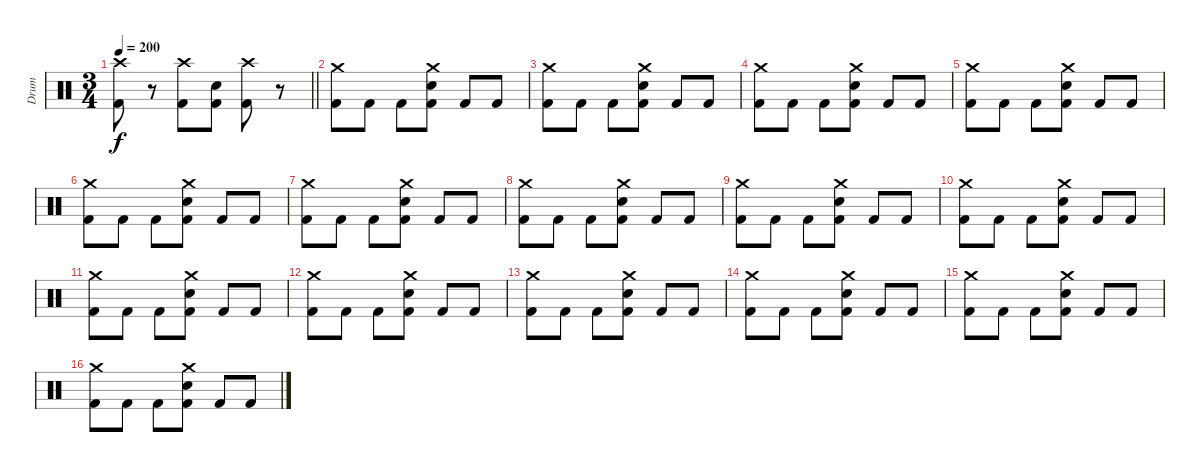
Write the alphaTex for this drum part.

\track ("Drum" "Drum") {instrument percussion}
\staff {score}
\articulation defaults
\ts (3 4)
\tempo 200
\clef neutral
\barLineRight lightlight
\ks c
("Crash high (hit)" "Kick (hit) 2").8{dy f} r.8 ("Crash high (hit)" "Kick (hit) 2").8 ("Electric Snare (hit)" "Kick (hit) 2").8 ("Crash high (hit)" "Kick (hit) 2").8 r.8 |
("Crash medium (hit)" "Kick (hit) 2").8 "Kick (hit) 2".8 "Kick (hit) 2".8 ("Crash medium (hit)" "Electric Snare (hit)" "Kick (hit) 2").8 "Kick (hit) 2".8 "Kick (hit) 2".8 |
("Crash medium (hit)" "Kick (hit) 2").8 "Kick (hit) 2".8 "Kick (hit) 2".8 ("Crash medium (hit)" "Electric Snare (hit)" "Kick (hit) 2").8 "Kick (hit) 2".8 "Kick (hit) 2".8 |
("Crash medium (hit)" "Kick (hit) 2").8 "Kick (hit) 2".8 "Kick (hit) 2".8 ("Crash medium (hit)" "Electric Snare (hit)" "Kick (hit) 2").8 "Kick (hit) 2".8 "Kick (hit) 2".8 |
("Crash medium (hit)" "Kick (hit) 2").8 "Kick (hit) 2".8 "Kick (hit) 2".8 ("Crash medium (hit)" "Electric Snare (hit)" "Kick (hit) 2").8 "Kick (hit) 2".8 "Kick (hit) 2".8 |
("Crash medium (hit)" "Kick (hit) 2").8 "Kick (hit) 2".8 "Kick (hit) 2".8 ("Crash medium (hit)" "Electric Snare (hit)" "Kick (hit) 2").8 "Kick (hit) 2".8 "Kick (hit) 2".8 |
("Crash medium (hit)" "Kick (hit) 2").8 "Kick (hit) 2".8 "Kick (hit) 2".8 ("Crash medium (hit)" "Electric Snare (hit)" "Kick (hit) 2").8 "Kick (hit) 2".8 "Kick (hit) 2".8 |
("Crash medium (hit)" "Kick (hit) 2").8 "Kick (hit) 2".8 "Kick (hit) 2".8 ("Crash medium (hit)" "Electric Snare (hit)" "Kick (hit) 2").8 "Kick (hit) 2".8 "Kick (hit) 2".8 |
("Crash medium (hit)" "Kick (hit) 2").8 "Kick (hit) 2".8 "Kick (hit) 2".8 ("Crash medium (hit)" "Electric Snare (hit)" "Kick (hit) 2").8 "Kick (hit) 2".8 "Kick (hit) 2".8 |
("Crash medium (hit)" "Kick (hit) 2").8 "Kick (hit) 2".8 "Kick (hit) 2".8 ("Crash medium (hit)" "Electric Snare (hit)" "Kick (hit) 2").8 "Kick (hit) 2".8 "Kick (hit) 2".8 |
("Crash medium (hit)" "Kick (hit) 2").8 "Kick (hit) 2".8 "Kick (hit) 2".8 ("Crash medium (hit)" "Electric Snare (hit)" "Kick (hit) 2").8 "Kick (hit) 2".8 "Kick (hit) 2".8 |
("Crash medium (hit)" "Kick (hit) 2").8 "Kick (hit) 2".8 "Kick (hit) 2".8 ("Crash medium (hit)" "Electric Snare (hit)" "Kick (hit) 2").8 "Kick (hit) 2".8 "Kick (hit) 2".8 |
("Crash medium (hit)" "Kick (hit) 2").8 "Kick (hit) 2".8 "Kick (hit) 2".8 ("Crash medium (hit)" "Electric Snare (hit)" "Kick (hit) 2").8 "Kick (hit) 2".8 "Kick (hit) 2".8 |
("Crash medium (hit)" "Kick (hit) 2").8 "Kick (hit) 2".8 "Kick (hit) 2".8 ("Crash medium (hit)" "Electric Snare (hit)" "Kick (hit) 2").8 "Kick (hit) 2".8 "Kick (hit) 2".8 |
("Crash medium (hit)" "Kick (hit) 2").8 "Kick (hit) 2".8 "Kick (hit) 2".8 ("Crash medium (hit)" "Electric Snare (hit)" "Kick (hit) 2").8 "Kick (hit) 2".8 "Kick (hit) 2".8 |
("Crash medium (hit)" "Kick (hit) 2").8 "Kick (hit) 2".8 "Kick (hit) 2".8 ("Crash medium (hit)" "Electric Snare (hit)" "Kick (hit) 2").8 "Kick (hit) 2".8 "Kick (hit) 2".8
